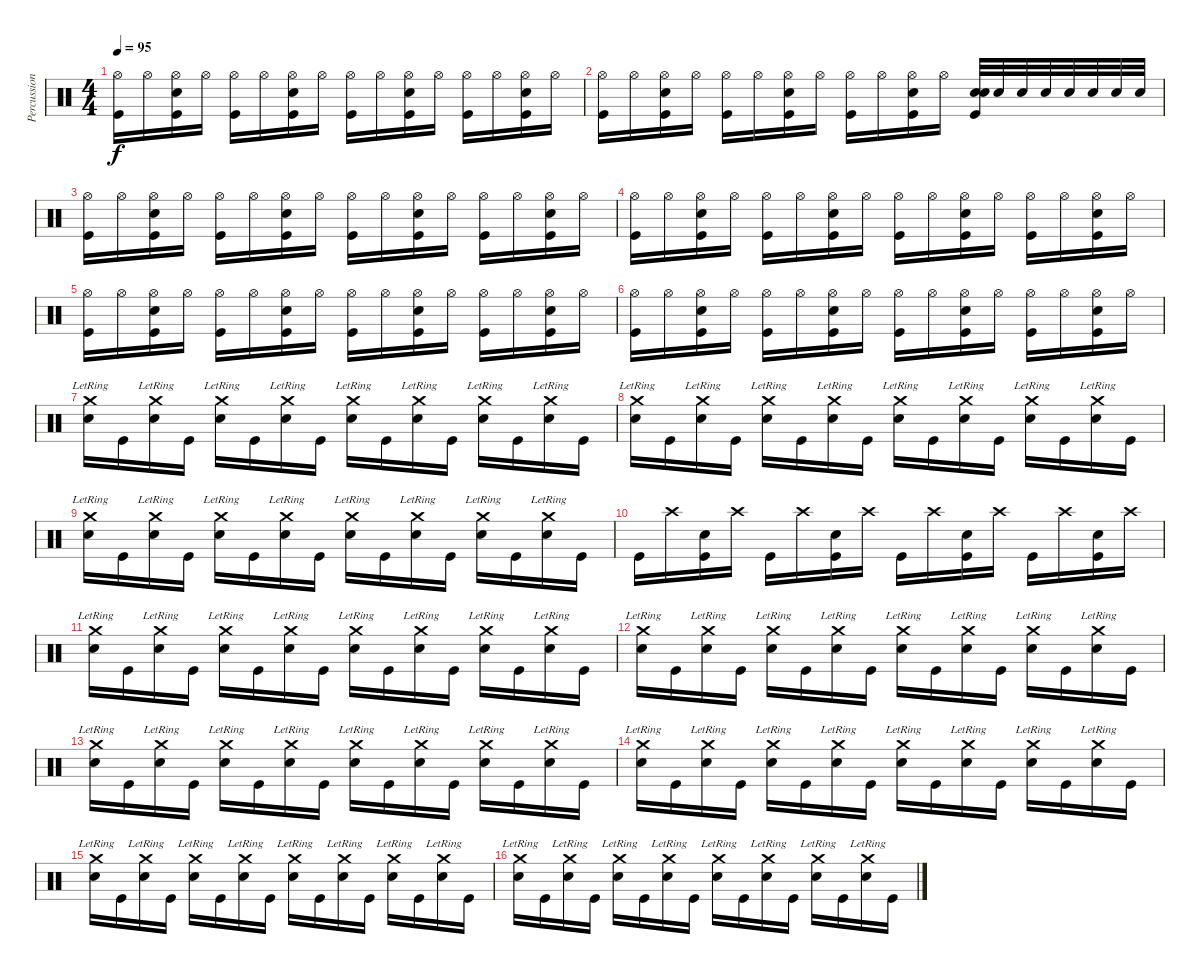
\track ("Percussion" "Percussion") {instrument percussion}
\staff {score}
\articulation defaults
\ts (4 4)
\tempo 95
\clef neutral
\ks c
("Hi-Hat (open)" "Kick (hit)").16{dy f} "Hi-Hat (open)".16 ("Hi-Hat (open)" "Snare (hit) 2" "Kick (hit)").16 "Hi-Hat (open)".16 ("Hi-Hat (open)" "Kick (hit)").16 "Hi-Hat (open)".16 ("Hi-Hat (open)" "Snare (hit) 2" "Kick (hit)").16 "Hi-Hat (open)".16 ("Hi-Hat (open)" "Kick (hit)").16 "Hi-Hat (open)".16 ("Hi-Hat (open)" "Snare (hit) 2" "Kick (hit)").16 "Hi-Hat (open)".16 ("Hi-Hat (open)" "Kick (hit)").16 "Hi-Hat (open)".16 ("Hi-Hat (open)" "Snare (hit) 2" "Kick (hit)").16 "Hi-Hat (open)".16 |
("Hi-Hat (open)" "Kick (hit)").16 "Hi-Hat (open)".16 ("Hi-Hat (open)" "Snare (hit) 2" "Kick (hit)").16 "Hi-Hat (open)".16 ("Hi-Hat (open)" "Kick (hit)").16 "Hi-Hat (open)".16 ("Hi-Hat (open)" "Snare (hit) 2" "Kick (hit)").16 "Hi-Hat (open)".16 ("Hi-Hat (open)" "Kick (hit)").16 "Hi-Hat (open)".16 ("Hi-Hat (open)" "Snare (hit) 2" "Kick (hit)").16 "Hi-Hat (open)".16 ("Snare (hit) 2" "Snare (hit) 2" "Kick (hit)").32 "Snare (hit) 2".32 "Snare (hit) 2".32 "Snare (hit) 2".32 "Snare (hit) 2".32 "Snare (hit) 2".32 "Snare (hit) 2".32 "Snare (hit) 2".32 |
("Hi-Hat (open)" "Kick (hit)").16 "Hi-Hat (open)".16 ("Hi-Hat (open)" "Snare (hit) 2" "Kick (hit)").16 "Hi-Hat (open)".16 ("Hi-Hat (open)" "Kick (hit)").16 "Hi-Hat (open)".16 ("Hi-Hat (open)" "Snare (hit) 2" "Kick (hit)").16 "Hi-Hat (open)".16 ("Hi-Hat (open)" "Kick (hit)").16 "Hi-Hat (open)".16 ("Hi-Hat (open)" "Snare (hit) 2" "Kick (hit)").16 "Hi-Hat (open)".16 ("Hi-Hat (open)" "Kick (hit)").16 "Hi-Hat (open)".16 ("Hi-Hat (open)" "Snare (hit) 2" "Kick (hit)").16 "Hi-Hat (open)".16 |
("Hi-Hat (open)" "Kick (hit)").16 "Hi-Hat (open)".16 ("Hi-Hat (open)" "Snare (hit) 2" "Kick (hit)").16 "Hi-Hat (open)".16 ("Hi-Hat (open)" "Kick (hit)").16 "Hi-Hat (open)".16 ("Hi-Hat (open)" "Snare (hit) 2" "Kick (hit)").16 "Hi-Hat (open)".16 ("Hi-Hat (open)" "Kick (hit)").16 "Hi-Hat (open)".16 ("Hi-Hat (open)" "Snare (hit) 2" "Kick (hit)").16 "Hi-Hat (open)".16 ("Hi-Hat (open)" "Kick (hit)").16 "Hi-Hat (open)".16 ("Hi-Hat (open)" "Snare (hit) 2" "Kick (hit)").16 "Hi-Hat (open)".16 |
("Hi-Hat (open)" "Kick (hit)").16 "Hi-Hat (open)".16 ("Hi-Hat (open)" "Snare (hit) 2" "Kick (hit)").16 "Hi-Hat (open)".16 ("Hi-Hat (open)" "Kick (hit)").16 "Hi-Hat (open)".16 ("Hi-Hat (open)" "Snare (hit) 2" "Kick (hit)").16 "Hi-Hat (open)".16 ("Hi-Hat (open)" "Kick (hit)").16 "Hi-Hat (open)".16 ("Hi-Hat (open)" "Snare (hit) 2" "Kick (hit)").16 "Hi-Hat (open)".16 ("Hi-Hat (open)" "Kick (hit)").16 "Hi-Hat (open)".16 ("Hi-Hat (open)" "Snare (hit) 2" "Kick (hit)").16 "Hi-Hat (open)".16 |
("Hi-Hat (open)" "Kick (hit)").16 "Hi-Hat (open)".16 ("Hi-Hat (open)" "Snare (hit) 2" "Kick (hit)").16 "Hi-Hat (open)".16 ("Hi-Hat (open)" "Kick (hit)").16 "Hi-Hat (open)".16 ("Hi-Hat (open)" "Snare (hit) 2" "Kick (hit)").16 "Hi-Hat (open)".16 ("Hi-Hat (open)" "Kick (hit)").16 "Hi-Hat (open)".16 ("Hi-Hat (open)" "Snare (hit) 2" "Kick (hit)").16 "Hi-Hat (open)".16 ("Hi-Hat (open)" "Kick (hit)").16 "Hi-Hat (open)".16 ("Hi-Hat (open)" "Snare (hit) 2" "Kick (hit)").16 "Hi-Hat (open)".16 |
("Crash medium (hit)"{lr} "Snare (hit) 2").16 "Kick (hit)".16 ("Crash medium (hit)"{lr} "Snare (hit) 2").16 "Kick (hit)".16 ("Crash medium (hit)"{lr} "Snare (hit) 2").16 "Kick (hit)".16 ("Crash medium (hit)"{lr} "Snare (hit) 2").16 "Kick (hit)".16 ("Crash medium (hit)"{lr} "Snare (hit) 2").16 "Kick (hit)".16 ("Crash medium (hit)"{lr} "Snare (hit) 2").16 "Kick (hit)".16 ("Crash medium (hit)"{lr} "Snare (hit) 2").16 "Kick (hit)".16 ("Crash medium (hit)"{lr} "Snare (hit) 2").16 "Kick (hit)".16 |
("Crash medium (hit)"{lr} "Snare (hit) 2").16 "Kick (hit)".16 ("Crash medium (hit)"{lr} "Snare (hit) 2").16 "Kick (hit)".16 ("Crash medium (hit)"{lr} "Snare (hit) 2").16 "Kick (hit)".16 ("Crash medium (hit)"{lr} "Snare (hit) 2").16 "Kick (hit)".16 ("Crash medium (hit)"{lr} "Snare (hit) 2").16 "Kick (hit)".16 ("Crash medium (hit)"{lr} "Snare (hit) 2").16 "Kick (hit)".16 ("Crash medium (hit)"{lr} "Snare (hit) 2").16 "Kick (hit)".16 ("Crash medium (hit)"{lr} "Snare (hit) 2").16 "Kick (hit)".16 |
("Crash medium (hit)"{lr} "Snare (hit) 2").16 "Kick (hit)".16 ("Crash medium (hit)"{lr} "Snare (hit) 2").16 "Kick (hit)".16 ("Crash medium (hit)"{lr} "Snare (hit) 2").16 "Kick (hit)".16 ("Crash medium (hit)"{lr} "Snare (hit) 2").16 "Kick (hit)".16 ("Crash medium (hit)"{lr} "Snare (hit) 2").16 "Kick (hit)".16 ("Crash medium (hit)"{lr} "Snare (hit) 2").16 "Kick (hit)".16 ("Crash medium (hit)"{lr} "Snare (hit) 2").16 "Kick (hit)".16 ("Crash medium (hit)"{lr} "Snare (hit) 2").16 "Kick (hit)".16 |
"Kick (hit)".16 "Crash high (hit)".16 ("Snare (hit) 2" "Kick (hit)").16 "Crash high (hit)".16 "Kick (hit)".16 "Crash high (hit)".16 ("Snare (hit) 2" "Kick (hit)").16 "Crash high (hit)".16 "Kick (hit)".16 "Crash high (hit)".16 ("Snare (hit) 2" "Kick (hit)").16 "Crash high (hit)".16 "Kick (hit)".16 "Crash high (hit)".16 ("Snare (hit) 2" "Kick (hit)").16 "Crash high (hit)".16 |
("Crash medium (hit)"{lr} "Snare (hit) 2").16 "Kick (hit)".16 ("Crash medium (hit)"{lr} "Snare (hit) 2").16 "Kick (hit)".16 ("Crash medium (hit)"{lr} "Snare (hit) 2").16 "Kick (hit)".16 ("Crash medium (hit)"{lr} "Snare (hit) 2").16 "Kick (hit)".16 ("Crash medium (hit)"{lr} "Snare (hit) 2").16 "Kick (hit)".16 ("Crash medium (hit)"{lr} "Snare (hit) 2").16 "Kick (hit)".16 ("Crash medium (hit)"{lr} "Snare (hit) 2").16 "Kick (hit)".16 ("Crash medium (hit)"{lr} "Snare (hit) 2").16 "Kick (hit)".16 |
("Crash medium (hit)"{lr} "Snare (hit) 2").16 "Kick (hit)".16 ("Crash medium (hit)"{lr} "Snare (hit) 2").16 "Kick (hit)".16 ("Crash medium (hit)"{lr} "Snare (hit) 2").16 "Kick (hit)".16 ("Crash medium (hit)"{lr} "Snare (hit) 2").16 "Kick (hit)".16 ("Crash medium (hit)"{lr} "Snare (hit) 2").16 "Kick (hit)".16 ("Crash medium (hit)"{lr} "Snare (hit) 2").16 "Kick (hit)".16 ("Crash medium (hit)"{lr} "Snare (hit) 2").16 "Kick (hit)".16 ("Crash medium (hit)"{lr} "Snare (hit) 2").16 "Kick (hit)".16 |
("Crash medium (hit)"{lr} "Snare (hit) 2").16 "Kick (hit)".16 ("Crash medium (hit)"{lr} "Snare (hit) 2").16 "Kick (hit)".16 ("Crash medium (hit)"{lr} "Snare (hit) 2").16 "Kick (hit)".16 ("Crash medium (hit)"{lr} "Snare (hit) 2").16 "Kick (hit)".16 ("Crash medium (hit)"{lr} "Snare (hit) 2").16 "Kick (hit)".16 ("Crash medium (hit)"{lr} "Snare (hit) 2").16 "Kick (hit)".16 ("Crash medium (hit)"{lr} "Snare (hit) 2").16 "Kick (hit)".16 ("Crash medium (hit)"{lr} "Snare (hit) 2").16 "Kick (hit)".16 |
("Crash medium (hit)"{lr} "Snare (hit) 2").16 "Kick (hit)".16 ("Crash medium (hit)"{lr} "Snare (hit) 2").16 "Kick (hit)".16 ("Crash medium (hit)"{lr} "Snare (hit) 2").16 "Kick (hit)".16 ("Crash medium (hit)"{lr} "Snare (hit) 2").16 "Kick (hit)".16 ("Crash medium (hit)"{lr} "Snare (hit) 2").16 "Kick (hit)".16 ("Crash medium (hit)"{lr} "Snare (hit) 2").16 "Kick (hit)".16 ("Crash medium (hit)"{lr} "Snare (hit) 2").16 "Kick (hit)".16 ("Crash medium (hit)"{lr} "Snare (hit) 2").16 "Kick (hit)".16 |
("Crash medium (hit)"{lr} "Snare (hit) 2").16 "Kick (hit)".16 ("Crash medium (hit)"{lr} "Snare (hit) 2").16 "Kick (hit)".16 ("Crash medium (hit)"{lr} "Snare (hit) 2").16 "Kick (hit)".16 ("Crash medium (hit)"{lr} "Snare (hit) 2").16 "Kick (hit)".16 ("Crash medium (hit)"{lr} "Snare (hit) 2").16 "Kick (hit)".16 ("Crash medium (hit)"{lr} "Snare (hit) 2").16 "Kick (hit)".16 ("Crash medium (hit)"{lr} "Snare (hit) 2").16 "Kick (hit)".16 ("Crash medium (hit)"{lr} "Snare (hit) 2").16 "Kick (hit)".16 |
("Crash medium (hit)"{lr} "Snare (hit) 2").16 "Kick (hit)".16 ("Crash medium (hit)"{lr} "Snare (hit) 2").16 "Kick (hit)".16 ("Crash medium (hit)"{lr} "Snare (hit) 2").16 "Kick (hit)".16 ("Crash medium (hit)"{lr} "Snare (hit) 2").16 "Kick (hit)".16 ("Crash medium (hit)"{lr} "Snare (hit) 2").16 "Kick (hit)".16 ("Crash medium (hit)"{lr} "Snare (hit) 2").16 "Kick (hit)".16 ("Crash medium (hit)"{lr} "Snare (hit) 2").16 "Kick (hit)".16 ("Crash medium (hit)"{lr} "Snare (hit) 2").16 "Kick (hit)".16
